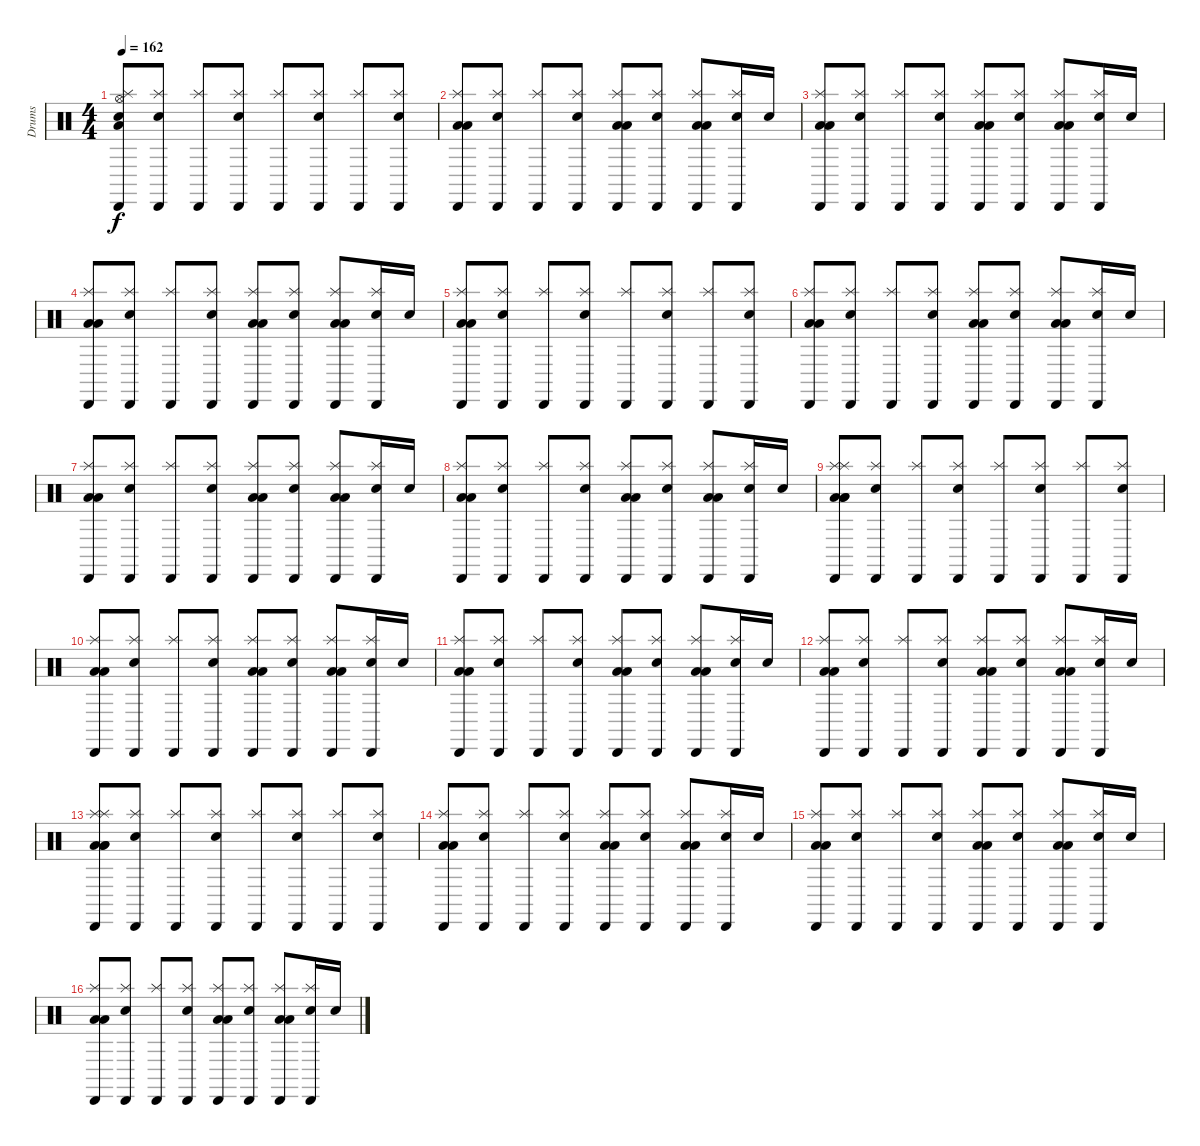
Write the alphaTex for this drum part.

\track ("Drums" "Drums") {instrument percussion}
\staff {score}
\articulation defaults
\ts (4 4)
\tempo 162
\clef neutral
\ks c
("Cabasa (hit)" "Splash (hit)" "Electric Snare (hit)" "Hi-Hat (open)" "Low Tom (hit)").8{dy f} ("Splash (hit)" "Electric Snare (hit)" "Cabasa (hit)").8 ("Splash (hit)" "Cabasa (hit)").8 ("Splash (hit)" "Electric Snare (hit)" "Cabasa (hit)").8 ("Splash (hit)" "Cabasa (hit)").8 ("Splash (hit)" "Electric Snare (hit)" "Cabasa (hit)").8 ("Splash (hit)" "Cabasa (hit)").8 ("Splash (hit)" "Electric Snare (hit)" "Cabasa (hit)").8 |
("Splash (hit)" "Low Floor Tom (hit)" "Low Tom (hit)" "Cabasa (hit)").8 ("Splash (hit)" "Electric Snare (hit)" "Cabasa (hit)").8 ("Splash (hit)" "Cabasa (hit)").8 ("Splash (hit)" "Electric Snare (hit)" "Cabasa (hit)").8 ("Splash (hit)" "Low Floor Tom (hit)" "Low Tom (hit)" "Cabasa (hit)").8 ("Splash (hit)" "Electric Snare (hit)" "Cabasa (hit)").8 ("Splash (hit)" "Low Floor Tom (hit)" "Low Tom (hit)" "Cabasa (hit)").8 ("Splash (hit)" "Electric Snare (hit)" "Cabasa (hit)").16 "Electric Snare (hit)".16 |
("Splash (hit)" "Low Floor Tom (hit)" "Low Tom (hit)" "Cabasa (hit)").8 ("Splash (hit)" "Electric Snare (hit)" "Cabasa (hit)").8 ("Splash (hit)" "Cabasa (hit)").8 ("Splash (hit)" "Electric Snare (hit)" "Cabasa (hit)").8 ("Splash (hit)" "Low Floor Tom (hit)" "Low Tom (hit)" "Cabasa (hit)").8 ("Splash (hit)" "Electric Snare (hit)" "Cabasa (hit)").8 ("Splash (hit)" "Low Floor Tom (hit)" "Low Tom (hit)" "Cabasa (hit)").8 ("Splash (hit)" "Electric Snare (hit)" "Cabasa (hit)").16 "Electric Snare (hit)".16 |
("Splash (hit)" "Low Floor Tom (hit)" "Low Tom (hit)" "Cabasa (hit)").8 ("Splash (hit)" "Electric Snare (hit)" "Cabasa (hit)").8 ("Splash (hit)" "Cabasa (hit)").8 ("Splash (hit)" "Electric Snare (hit)" "Cabasa (hit)").8 ("Splash (hit)" "Low Floor Tom (hit)" "Low Tom (hit)" "Cabasa (hit)").8 ("Splash (hit)" "Electric Snare (hit)" "Cabasa (hit)").8 ("Splash (hit)" "Low Floor Tom (hit)" "Low Tom (hit)" "Cabasa (hit)").8 ("Splash (hit)" "Electric Snare (hit)" "Cabasa (hit)").16 "Electric Snare (hit)".16 |
("Splash (hit)" "Low Floor Tom (hit)" "Low Tom (hit)" "Cabasa (hit)").8 ("Splash (hit)" "Electric Snare (hit)" "Cabasa (hit)").8 ("Splash (hit)" "Cabasa (hit)").8 ("Splash (hit)" "Electric Snare (hit)" "Cabasa (hit)").8 ("Splash (hit)" "Cabasa (hit)").8 ("Splash (hit)" "Electric Snare (hit)" "Cabasa (hit)").8 ("Splash (hit)" "Cabasa (hit)").8 ("Splash (hit)" "Electric Snare (hit)" "Cabasa (hit)").8 |
("Splash (hit)" "Low Floor Tom (hit)" "Low Tom (hit)" "Cabasa (hit)").8 ("Splash (hit)" "Electric Snare (hit)" "Cabasa (hit)").8 ("Splash (hit)" "Cabasa (hit)").8 ("Splash (hit)" "Electric Snare (hit)" "Cabasa (hit)").8 ("Splash (hit)" "Low Floor Tom (hit)" "Low Tom (hit)" "Cabasa (hit)").8 ("Splash (hit)" "Electric Snare (hit)" "Cabasa (hit)").8 ("Splash (hit)" "Low Floor Tom (hit)" "Low Tom (hit)" "Cabasa (hit)").8 ("Splash (hit)" "Electric Snare (hit)" "Cabasa (hit)").16 "Electric Snare (hit)".16 |
("Splash (hit)" "Low Floor Tom (hit)" "Low Tom (hit)" "Cabasa (hit)").8 ("Splash (hit)" "Electric Snare (hit)" "Cabasa (hit)").8 ("Splash (hit)" "Cabasa (hit)").8 ("Splash (hit)" "Electric Snare (hit)" "Cabasa (hit)").8 ("Splash (hit)" "Low Floor Tom (hit)" "Low Tom (hit)" "Cabasa (hit)").8 ("Splash (hit)" "Electric Snare (hit)" "Cabasa (hit)").8 ("Splash (hit)" "Low Floor Tom (hit)" "Low Tom (hit)" "Cabasa (hit)").8 ("Splash (hit)" "Electric Snare (hit)" "Cabasa (hit)").16 "Electric Snare (hit)".16 |
("Splash (hit)" "Low Floor Tom (hit)" "Low Tom (hit)" "Cabasa (hit)").8 ("Splash (hit)" "Electric Snare (hit)" "Cabasa (hit)").8 ("Splash (hit)" "Cabasa (hit)").8 ("Splash (hit)" "Electric Snare (hit)" "Cabasa (hit)").8 ("Splash (hit)" "Low Floor Tom (hit)" "Low Tom (hit)" "Cabasa (hit)").8 ("Splash (hit)" "Electric Snare (hit)" "Cabasa (hit)").8 ("Splash (hit)" "Low Floor Tom (hit)" "Low Tom (hit)" "Cabasa (hit)").8 ("Splash (hit)" "Electric Snare (hit)" "Cabasa (hit)").16 "Electric Snare (hit)".16 |
("Splash (hit)" "Low Floor Tom (hit)" "Low Tom (hit)" "Cabasa (hit)" "Splash (hit)" "Low Floor Tom (hit)").8 ("Splash (hit)" "Electric Snare (hit)" "Cabasa (hit)").8 ("Splash (hit)" "Cabasa (hit)").8 ("Splash (hit)" "Electric Snare (hit)" "Cabasa (hit)").8 ("Splash (hit)" "Cabasa (hit)").8 ("Splash (hit)" "Electric Snare (hit)" "Cabasa (hit)").8 ("Splash (hit)" "Cabasa (hit)").8 ("Splash (hit)" "Electric Snare (hit)" "Cabasa (hit)").8 |
("Splash (hit)" "Low Floor Tom (hit)" "Low Tom (hit)" "Cabasa (hit)").8 ("Splash (hit)" "Electric Snare (hit)" "Cabasa (hit)").8 ("Splash (hit)" "Cabasa (hit)").8 ("Splash (hit)" "Electric Snare (hit)" "Cabasa (hit)").8 ("Splash (hit)" "Low Floor Tom (hit)" "Low Tom (hit)" "Cabasa (hit)").8 ("Splash (hit)" "Electric Snare (hit)" "Cabasa (hit)").8 ("Splash (hit)" "Low Floor Tom (hit)" "Low Tom (hit)" "Cabasa (hit)").8 ("Splash (hit)" "Electric Snare (hit)" "Cabasa (hit)").16 "Electric Snare (hit)".16 |
("Splash (hit)" "Low Floor Tom (hit)" "Low Tom (hit)" "Cabasa (hit)").8 ("Splash (hit)" "Electric Snare (hit)" "Cabasa (hit)").8 ("Splash (hit)" "Cabasa (hit)").8 ("Splash (hit)" "Electric Snare (hit)" "Cabasa (hit)").8 ("Splash (hit)" "Low Floor Tom (hit)" "Low Tom (hit)" "Cabasa (hit)").8 ("Splash (hit)" "Electric Snare (hit)" "Cabasa (hit)").8 ("Splash (hit)" "Low Floor Tom (hit)" "Low Tom (hit)" "Cabasa (hit)").8 ("Splash (hit)" "Electric Snare (hit)" "Cabasa (hit)").16 "Electric Snare (hit)".16 |
("Splash (hit)" "Low Floor Tom (hit)" "Low Tom (hit)" "Cabasa (hit)").8 ("Splash (hit)" "Electric Snare (hit)" "Cabasa (hit)").8 ("Splash (hit)" "Cabasa (hit)").8 ("Splash (hit)" "Electric Snare (hit)" "Cabasa (hit)").8 ("Splash (hit)" "Low Floor Tom (hit)" "Low Tom (hit)" "Cabasa (hit)").8 ("Splash (hit)" "Electric Snare (hit)" "Cabasa (hit)").8 ("Splash (hit)" "Low Floor Tom (hit)" "Low Tom (hit)" "Cabasa (hit)").8 ("Splash (hit)" "Electric Snare (hit)" "Cabasa (hit)").16 "Electric Snare (hit)".16 |
("Splash (hit)" "Low Floor Tom (hit)" "Low Tom (hit)" "Cabasa (hit)" "Splash (hit)" "Low Floor Tom (hit)").8 ("Splash (hit)" "Electric Snare (hit)" "Cabasa (hit)").8 ("Splash (hit)" "Cabasa (hit)").8 ("Splash (hit)" "Electric Snare (hit)" "Cabasa (hit)").8 ("Splash (hit)" "Cabasa (hit)").8 ("Splash (hit)" "Electric Snare (hit)" "Cabasa (hit)").8 ("Splash (hit)" "Cabasa (hit)").8 ("Splash (hit)" "Electric Snare (hit)" "Cabasa (hit)").8 |
("Splash (hit)" "Low Floor Tom (hit)" "Low Tom (hit)" "Cabasa (hit)").8 ("Splash (hit)" "Electric Snare (hit)" "Cabasa (hit)").8 ("Splash (hit)" "Cabasa (hit)").8 ("Splash (hit)" "Electric Snare (hit)" "Cabasa (hit)").8 ("Splash (hit)" "Low Floor Tom (hit)" "Low Tom (hit)" "Cabasa (hit)").8 ("Splash (hit)" "Electric Snare (hit)" "Cabasa (hit)").8 ("Splash (hit)" "Low Floor Tom (hit)" "Low Tom (hit)" "Cabasa (hit)").8 ("Splash (hit)" "Electric Snare (hit)" "Cabasa (hit)").16 "Electric Snare (hit)".16 |
("Splash (hit)" "Low Floor Tom (hit)" "Low Tom (hit)" "Cabasa (hit)").8 ("Splash (hit)" "Electric Snare (hit)" "Cabasa (hit)").8 ("Splash (hit)" "Cabasa (hit)").8 ("Splash (hit)" "Electric Snare (hit)" "Cabasa (hit)").8 ("Splash (hit)" "Low Floor Tom (hit)" "Low Tom (hit)" "Cabasa (hit)").8 ("Splash (hit)" "Electric Snare (hit)" "Cabasa (hit)").8 ("Splash (hit)" "Low Floor Tom (hit)" "Low Tom (hit)" "Cabasa (hit)").8 ("Splash (hit)" "Electric Snare (hit)" "Cabasa (hit)").16 "Electric Snare (hit)".16 |
("Splash (hit)" "Low Floor Tom (hit)" "Low Tom (hit)" "Cabasa (hit)").8 ("Splash (hit)" "Electric Snare (hit)" "Cabasa (hit)").8 ("Splash (hit)" "Cabasa (hit)").8 ("Splash (hit)" "Electric Snare (hit)" "Cabasa (hit)").8 ("Splash (hit)" "Low Floor Tom (hit)" "Low Tom (hit)" "Cabasa (hit)").8 ("Splash (hit)" "Electric Snare (hit)" "Cabasa (hit)").8 ("Splash (hit)" "Low Floor Tom (hit)" "Low Tom (hit)" "Cabasa (hit)").8 ("Splash (hit)" "Electric Snare (hit)" "Cabasa (hit)").16 "Electric Snare (hit)".16
